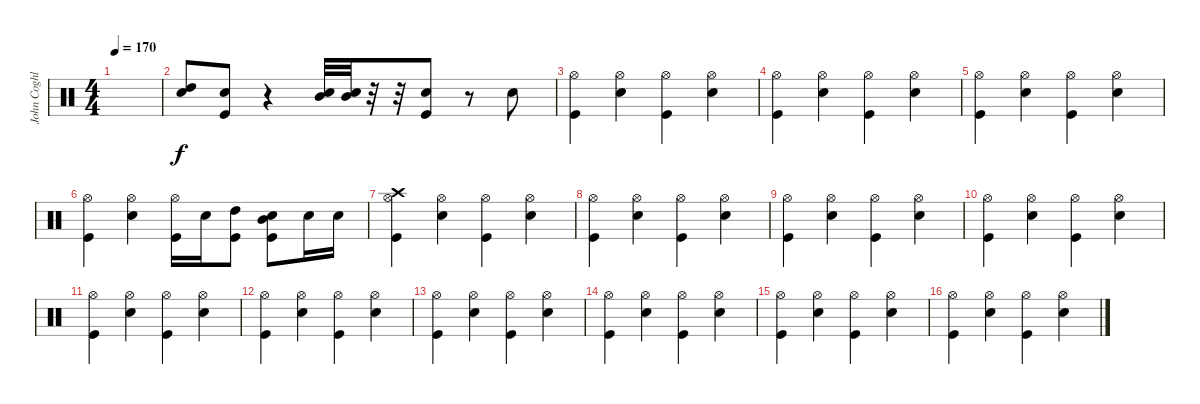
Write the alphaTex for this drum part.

\track ("John Coghlan" "John Coghl") {instrument percussion}
\staff {score}
\articulation defaults
\ts (4 4)
\tempo 170
\clef neutral
\ks c
|
("High Tom (hit)" "Electric Snare (hit)").8 ("Electric Snare (hit)" "Kick (hit)").8 r.4 ("Mid Tom (hit)" "Electric Snare (hit)").32 ("Mid Tom (hit)" "Electric Snare (hit)").32 r.32 r.32 ("Electric Snare (hit)" "Kick (hit)").8 r.8 "Electric Snare (hit)".8 |
("Hi-Hat (open)" "Kick (hit)").4 ("Electric Snare (hit)" "Hi-Hat (open)").4 ("Hi-Hat (open)" "Kick (hit)").4 ("Electric Snare (hit)" "Hi-Hat (open)").4 |
("Hi-Hat (open)" "Kick (hit)").4 ("Electric Snare (hit)" "Hi-Hat (open)").4 ("Hi-Hat (open)" "Kick (hit)").4 ("Electric Snare (hit)" "Hi-Hat (open)").4 |
("Hi-Hat (open)" "Kick (hit)").4 ("Electric Snare (hit)" "Hi-Hat (open)").4 ("Hi-Hat (open)" "Kick (hit)").4 ("Electric Snare (hit)" "Hi-Hat (open)").4 |
("Hi-Hat (open)" "Kick (hit)").4 ("Electric Snare (hit)" "Hi-Hat (open)").4 ("Hi-Hat (open)" "Kick (hit)").16 "Electric Snare (hit)".16 ("High Tom (hit)" "Kick (hit)").8 ("Electric Snare (hit)" "Mid Tom (hit)" "Kick (hit)").8 "Electric Snare (hit)".16 "Electric Snare (hit)".16 |
("Crash high (hit)" "Hi-Hat (open)" "Kick (hit)").4 ("Electric Snare (hit)" "Hi-Hat (open)").4 ("Hi-Hat (open)" "Kick (hit)").4 ("Electric Snare (hit)" "Hi-Hat (open)").4 |
("Hi-Hat (open)" "Kick (hit)").4 ("Electric Snare (hit)" "Hi-Hat (open)").4 ("Hi-Hat (open)" "Kick (hit)").4 ("Electric Snare (hit)" "Hi-Hat (open)").4 |
("Hi-Hat (open)" "Kick (hit)").4 ("Electric Snare (hit)" "Hi-Hat (open)").4 ("Hi-Hat (open)" "Kick (hit)").4 ("Electric Snare (hit)" "Hi-Hat (open)").4 |
("Hi-Hat (open)" "Kick (hit)").4 ("Electric Snare (hit)" "Hi-Hat (open)").4 ("Hi-Hat (open)" "Kick (hit)").4 ("Electric Snare (hit)" "Hi-Hat (open)").4 |
("Hi-Hat (open)" "Kick (hit)").4 ("Electric Snare (hit)" "Hi-Hat (open)").4 ("Hi-Hat (open)" "Kick (hit)").4 ("Electric Snare (hit)" "Hi-Hat (open)").4 |
("Hi-Hat (open)" "Kick (hit)").4 ("Electric Snare (hit)" "Hi-Hat (open)").4 ("Hi-Hat (open)" "Kick (hit)").4 ("Electric Snare (hit)" "Hi-Hat (open)").4 |
("Hi-Hat (open)" "Kick (hit)").4 ("Electric Snare (hit)" "Hi-Hat (open)").4 ("Hi-Hat (open)" "Kick (hit)").4 ("Electric Snare (hit)" "Hi-Hat (open)").4 |
("Hi-Hat (open)" "Kick (hit)").4 ("Electric Snare (hit)" "Hi-Hat (open)").4 ("Hi-Hat (open)" "Kick (hit)").4 ("Electric Snare (hit)" "Hi-Hat (open)").4 |
("Hi-Hat (open)" "Kick (hit)").4 ("Electric Snare (hit)" "Hi-Hat (open)").4 ("Hi-Hat (open)" "Kick (hit)").4 ("Electric Snare (hit)" "Hi-Hat (open)").4 |
("Hi-Hat (open)" "Kick (hit)").4 ("Electric Snare (hit)" "Hi-Hat (open)").4 ("Hi-Hat (open)" "Kick (hit)").4 ("Electric Snare (hit)" "Hi-Hat (open)").4
